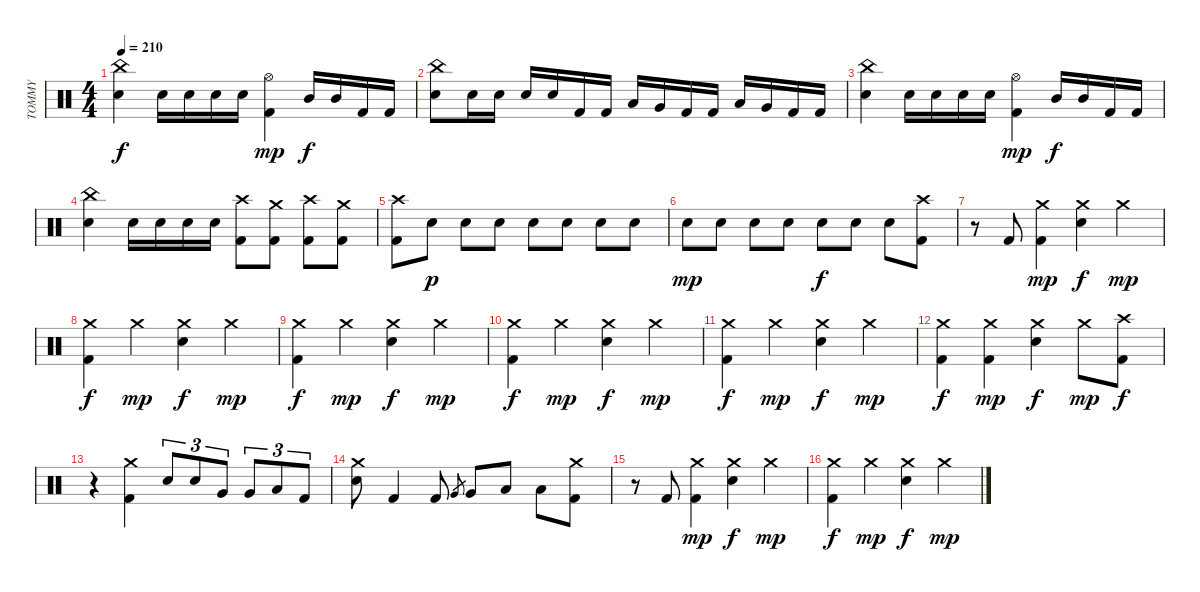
\track ("TOMMY" "TOMMY") {instrument percussion}
\staff {score}
\articulation defaults
\ts (4 4)
\tempo 210
\clef neutral
\ks c
("Snare (hit) 2" "China (hit)").4{dy f} "Snare (hit) 2".16 "Snare (hit) 2".16 "Snare (hit) 2".16 "Snare (hit) 2".16 ("Kick (hit) 2" "Hi-Hat (open)").4{dy mp} "Mid Tom (hit)".16{dy f} "Mid Tom (hit)".16 "Kick (hit) 2".16 "Kick (hit) 2".16 |
("Snare (hit) 2" "China (hit)").8 "Snare (hit) 2".16 "Snare (hit) 2".16 "Snare (hit) 2".16 "Snare (hit) 2".16 "Kick (hit) 2".16 "Kick (hit) 2".16 "Low Floor Tom (hit)".16 "Very Low Tom (hit)".16 "Kick (hit) 2".16 "Kick (hit) 2".16 "Low Floor Tom (hit)".16 "Very Low Tom (hit)".16 "Kick (hit) 2".16 "Kick (hit) 2".16 |
("Snare (hit) 2" "China (hit)").4 "Snare (hit) 2".16 "Snare (hit) 2".16 "Snare (hit) 2".16 "Snare (hit) 2".16 ("Kick (hit) 2" "Hi-Hat (open)").4{dy mp} "Mid Tom (hit)".16{dy f} "Mid Tom (hit)".16 "Kick (hit) 2".16 "Kick (hit) 2".16 |
("Snare (hit) 2" "China (hit)").4 "Snare (hit) 2".16 "Snare (hit) 2".16 "Snare (hit) 2".16 "Snare (hit) 2".16 ("Kick (hit) 2" "Crash high (hit)").8 ("Kick (hit) 2" "Crash medium (hit)").8 ("Kick (hit) 2" "Crash high (hit)").8 ("Kick (hit) 2" "Crash medium (hit)").8 |
("Kick (hit) 2" "Crash high (hit)").8 "Snare (hit) 2".8{dy p} "Snare (hit) 2".8 "Snare (hit) 2".8 "Snare (hit) 2".8 "Snare (hit) 2".8 "Snare (hit) 2".8 "Snare (hit) 2".8 |
"Snare (hit) 2".8{dy mp} "Snare (hit) 2".8 "Snare (hit) 2".8 "Snare (hit) 2".8 "Snare (hit) 2".8{dy f} "Snare (hit) 2".8 "Snare (hit) 2".8 ("Kick (hit) 2" "Crash high (hit)").8 |
r.8 "Kick (hit) 2".8 ("Kick (hit) 2" "Crash medium (hit)").4{dy mp} ("Snare (hit) 2" "Crash medium (hit)").4{dy f} "Crash medium (hit)".4{dy mp} |
("Kick (hit) 2" "Crash medium (hit)").4{dy f} "Crash medium (hit)".4{dy mp} ("Snare (hit) 2" "Crash medium (hit)").4{dy f} "Crash medium (hit)".4{dy mp} |
("Kick (hit) 2" "Crash medium (hit)").4{dy f} "Crash medium (hit)".4{dy mp} ("Snare (hit) 2" "Crash medium (hit)").4{dy f} "Crash medium (hit)".4{dy mp} |
("Kick (hit) 2" "Crash medium (hit)").4{dy f} "Crash medium (hit)".4{dy mp} ("Snare (hit) 2" "Crash medium (hit)").4{dy f} "Crash medium (hit)".4{dy mp} |
("Kick (hit) 2" "Crash medium (hit)").4{dy f} "Crash medium (hit)".4{dy mp} ("Snare (hit) 2" "Crash medium (hit)").4{dy f} "Crash medium (hit)".4{dy mp} |
("Kick (hit) 2" "Crash medium (hit)").4{dy f} ("Kick (hit) 2" "Crash medium (hit)").4{dy mp} ("Snare (hit) 2" "Crash medium (hit)").4{dy f} "Crash medium (hit)".8{dy mp} ("Kick (hit) 2" "Crash high (hit)").8{dy f} |
r.4 ("Kick (hit) 2" "Crash medium (hit)").4 "Snare (hit) 2".8{tu (3 2)} "Snare (hit) 2".8{tu (3 2)} "Very Low Tom (hit)".8{tu (3 2)} "Very Low Tom (hit)".8{tu (3 2)} "Low Floor Tom (hit)".8{tu (3 2)} "Kick (hit) 2".8{tu (3 2)} |
("Snare (hit) 2" "Crash medium (hit)").8 "Kick (hit) 2".4 "Kick (hit) 2".8 "Very Low Tom (hit)".8{gr} "Very Low Tom (hit)".8 "Low Floor Tom (hit)".8 "Low Floor Tom (hit)".8 ("Kick (hit) 2" "Crash medium (hit)").8 |
r.8 "Kick (hit) 2".8 ("Kick (hit) 2" "Crash medium (hit)").4{dy mp} ("Snare (hit) 2" "Crash medium (hit)").4{dy f} "Crash medium (hit)".4{dy mp} |
("Kick (hit) 2" "Crash medium (hit)").4{dy f} "Crash medium (hit)".4{dy mp} ("Snare (hit) 2" "Crash medium (hit)").4{dy f} "Crash medium (hit)".4{dy mp}
